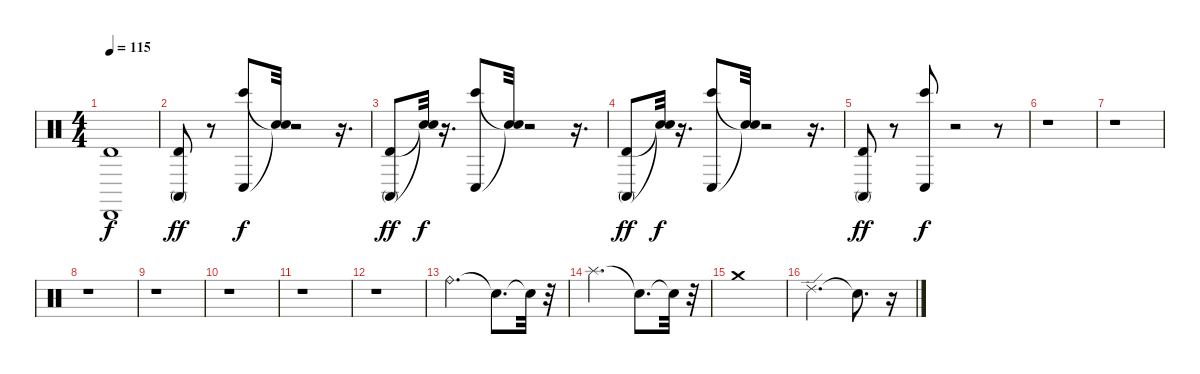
\track "" {instrument percussion}
\staff {score}
\articulation defaults
\ts (4 4)
\tempo 115
\clef neutral
\ks c
("Timbale high (hit)" "Cabasa (hit)").1{dy f} |
("Timbale high (hit)" "Conga high (mute)").8{dy ff balance 11} r.8 ("Conga low (hit)" "Bongo High (hit)").8{dy f} ("Snare (hit)"{t} "Snare (hit)"{t}).32 r.2 r.16{d} |
("Conga high (mute)" "Timbale high (hit)").8{dy ff} ("Snare (hit)"{t} "Snare (hit)"{t}).32{dy f} r.16{d} ("Conga low (hit)" "Bongo High (hit)").8 ("Snare (hit)"{t} "Snare (hit)"{t}).32 r.2 r.16{d} |
("Conga high (mute)" "Timbale high (hit)").8{dy ff} ("Snare (hit)"{t} "Snare (hit)"{t}).32{dy f} r.16{d} ("Conga low (hit)" "Bongo High (hit)").8 ("Snare (hit)"{t} "Snare (hit)"{t}).32 r.2 r.16{d} |
("Conga high (mute)" "Timbale high (hit)").8{dy ff} r.8 ("Conga low (hit)" "Bongo High (hit)").8{dy f} r.2 r.8 |
r.1 |
r.1 |
r.1 |
r.1 |
r.1 |
r.1 |
r.1 |
"Ride (bell)".2{d} "Snare (hit)"{t}.8{d} "Snare (hit)"{t}.32 r.32 |
"Splash (hit)".2{d} "Snare (hit)"{t}.8{d} "Snare (hit)"{t}.32 r.32 |
"Crash medium (hit)".1 |
"Ride (edge) 2".2{d} "Snare (hit)"{t}.8{d} r.16
